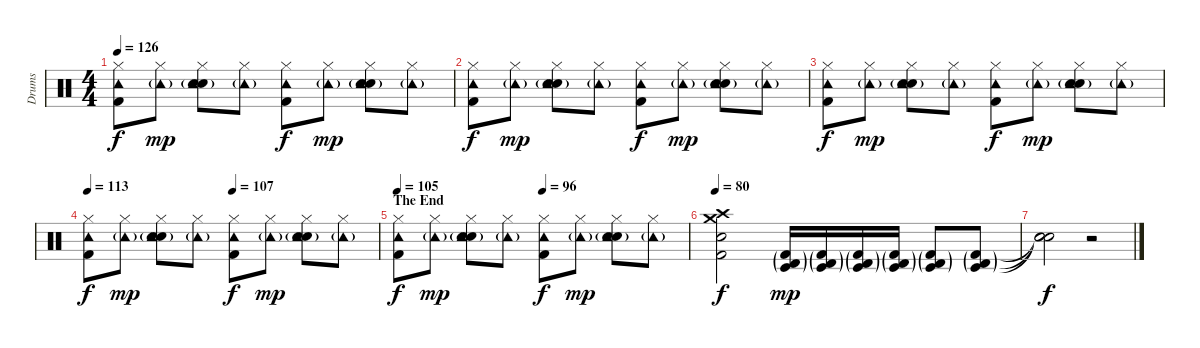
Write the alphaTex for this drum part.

\track ("Drums" "Drums") {instrument percussion}
\staff {score}
\articulation defaults
\ts (4 4)
\tempo 126
\clef neutral
\ks c
("Kick (hit) 2" "Hi-Hat (closed)" "Tambourine (hit)").8{dy f} ("Hi-Hat (closed)" "Tambourine (hit)"{g}).8{dy mp} ("Snare (hit) 2" "Hi-Hat (closed)" "Tambourine (hit)" "Hand Clap (hit)"{g}).8 ("Hi-Hat (closed)" "Tambourine (hit)"{g}).8 ("Kick (hit) 2" "Hi-Hat (closed)" "Tambourine (hit)").8{dy f} ("Hi-Hat (closed)" "Tambourine (hit)"{g}).8{dy mp} ("Snare (hit) 2" "Hi-Hat (closed)" "Tambourine (hit)" "Hand Clap (hit)"{g}).8 ("Hi-Hat (closed)" "Tambourine (hit)"{g}).8 |
("Kick (hit) 2" "Hi-Hat (closed)" "Tambourine (hit)").8{dy f} ("Hi-Hat (closed)" "Tambourine (hit)"{g}).8{dy mp} ("Snare (hit) 2" "Hi-Hat (closed)" "Tambourine (hit)" "Hand Clap (hit)"{g}).8 ("Hi-Hat (closed)" "Tambourine (hit)"{g}).8 ("Kick (hit) 2" "Hi-Hat (closed)" "Tambourine (hit)").8{dy f} ("Hi-Hat (closed)" "Tambourine (hit)"{g}).8{dy mp} ("Snare (hit) 2" "Hi-Hat (closed)" "Tambourine (hit)" "Hand Clap (hit)"{g}).8 ("Hi-Hat (closed)" "Tambourine (hit)"{g}).8 |
("Kick (hit) 2" "Hi-Hat (closed)" "Tambourine (hit)").8{dy f} ("Hi-Hat (closed)" "Tambourine (hit)"{g}).8{dy mp} ("Snare (hit) 2" "Hi-Hat (closed)" "Tambourine (hit)" "Hand Clap (hit)"{g}).8 ("Hi-Hat (closed)" "Tambourine (hit)"{g}).8 ("Kick (hit) 2" "Hi-Hat (closed)" "Tambourine (hit)").8{dy f} ("Hi-Hat (closed)" "Tambourine (hit)"{g}).8{dy mp} ("Snare (hit) 2" "Hi-Hat (closed)" "Tambourine (hit)" "Hand Clap (hit)"{g}).8 ("Hi-Hat (closed)" "Tambourine (hit)"{g}).8 |
\tempo 113
\tempo (107 0.5)
("Kick (hit) 2" "Hi-Hat (closed)" "Tambourine (hit)").8{dy f} ("Hi-Hat (closed)" "Tambourine (hit)"{g}).8{dy mp} ("Snare (hit) 2" "Hi-Hat (closed)" "Tambourine (hit)" "Hand Clap (hit)"{g}).8 ("Hi-Hat (closed)" "Tambourine (hit)"{g}).8 ("Kick (hit) 2" "Hi-Hat (closed)" "Tambourine (hit)").8{dy f} ("Hi-Hat (closed)" "Tambourine (hit)"{g}).8{dy mp} ("Snare (hit) 2" "Hi-Hat (closed)" "Tambourine (hit)" "Hand Clap (hit)"{g}).8 ("Hi-Hat (closed)" "Tambourine (hit)"{g}).8 |
\section ("" "The End")
\tempo 105
\tempo (96 0.5)
("Kick (hit) 2" "Hi-Hat (closed)" "Tambourine (hit)").8{dy f} ("Hi-Hat (closed)" "Tambourine (hit)"{g}).8{dy mp} ("Snare (hit) 2" "Hi-Hat (closed)" "Tambourine (hit)" "Hand Clap (hit)"{g}).8 ("Hi-Hat (closed)" "Tambourine (hit)"{g}).8 ("Kick (hit) 2" "Hi-Hat (closed)" "Tambourine (hit)").8{dy f} ("Hi-Hat (closed)" "Tambourine (hit)"{g}).8{dy mp} ("Snare (hit) 2" "Hi-Hat (closed)" "Tambourine (hit)" "Hand Clap (hit)"{g}).8 ("Hi-Hat (closed)" "Tambourine (hit)"{g}).8 |
\tempo 80
("Kick (hit) 2" "Snare (hit) 2" "Crash medium (hit)" "Crash high (hit)").2{dy f} ("Kick (hit) 2"{g} "Timbale low (hit)"{g} "Timbale high (hit)"{g}).16{dy mp} ("Kick (hit) 2"{g} "Timbale low (hit)"{g} "Timbale high (hit)"{g}).16 ("Kick (hit) 2"{g} "Timbale low (hit)"{g} "Timbale high (hit)"{g}).16 ("Kick (hit) 2"{g} "Timbale low (hit)"{g} "Timbale high (hit)"{g}).16 ("Kick (hit) 2"{g} "Timbale low (hit)"{g} "Timbale high (hit)"{g}).8 ("Kick (hit) 2"{g} "Timbale low (hit)"{g} "Timbale high (hit)"{g}).8 |
("Snare (hit)"{t} "Snare (hit)"{t} "Snare (hit)"{t}).2{dy f} r.2
